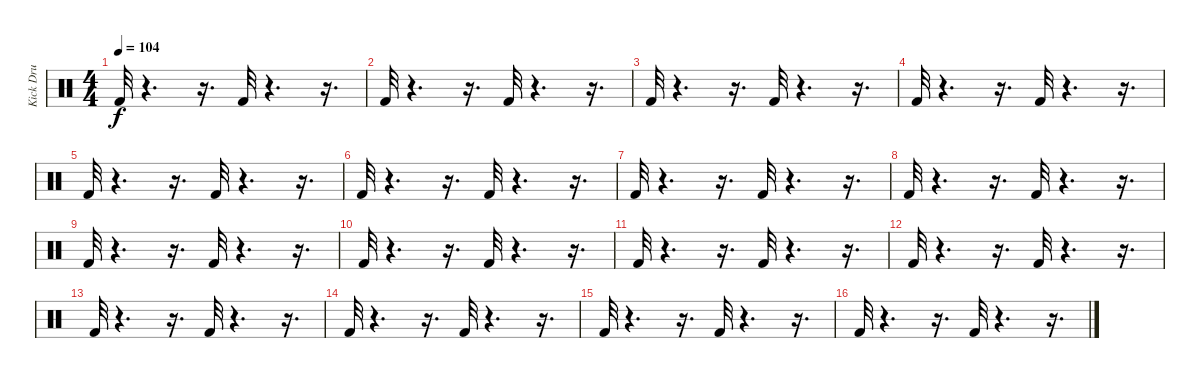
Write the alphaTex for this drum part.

\track ("  Kick Drum 1" "  Kick Dru") {instrument percussion}
\staff {score}
\articulation defaults
\ts (4 4)
\tempo 104
\clef neutral
\ks c "Kick (hit) 2".32{dy f}
r.4{d} r.16{d} "Kick (hit) 2".32 r.4{d} r.16{d} |
"Kick (hit) 2".32 r.4{d} r.16{d} "Kick (hit) 2".32 r.4{d} r.16{d} |
"Kick (hit) 2".32 r.4{d} r.16{d} "Kick (hit) 2".32 r.4{d} r.16{d} |
"Kick (hit) 2".32 r.4{d} r.16{d} "Kick (hit) 2".32 r.4{d} r.16{d} |
"Kick (hit) 2".32 r.4{d} r.16{d} "Kick (hit) 2".32 r.4{d} r.16{d} |
"Kick (hit) 2".32 r.4{d} r.16{d} "Kick (hit) 2".32 r.4{d} r.16{d} |
"Kick (hit) 2".32 r.4{d} r.16{d} "Kick (hit) 2".32 r.4{d} r.16{d} |
"Kick (hit) 2".32 r.4{d} r.16{d} "Kick (hit) 2".32 r.4{d} r.16{d} |
"Kick (hit) 2".32 r.4{d} r.16{d} "Kick (hit) 2".32 r.4{d} r.16{d} |
"Kick (hit) 2".32 r.4{d} r.16{d} "Kick (hit) 2".32 r.4{d} r.16{d} |
"Kick (hit) 2".32 r.4{d} r.16{d} "Kick (hit) 2".32 r.4{d} r.16{d} |
"Kick (hit) 2".32 r.4{d} r.16{d} "Kick (hit) 2".32 r.4{d} r.16{d} |
"Kick (hit) 2".32 r.4{d} r.16{d} "Kick (hit) 2".32 r.4{d} r.16{d} |
"Kick (hit) 2".32 r.4{d} r.16{d} "Kick (hit) 2".32 r.4{d} r.16{d} |
"Kick (hit) 2".32 r.4{d} r.16{d} "Kick (hit) 2".32 r.4{d} r.16{d} |
"Kick (hit) 2".32 r.4{d} r.16{d} "Kick (hit) 2".32 r.4{d} r.16{d}
